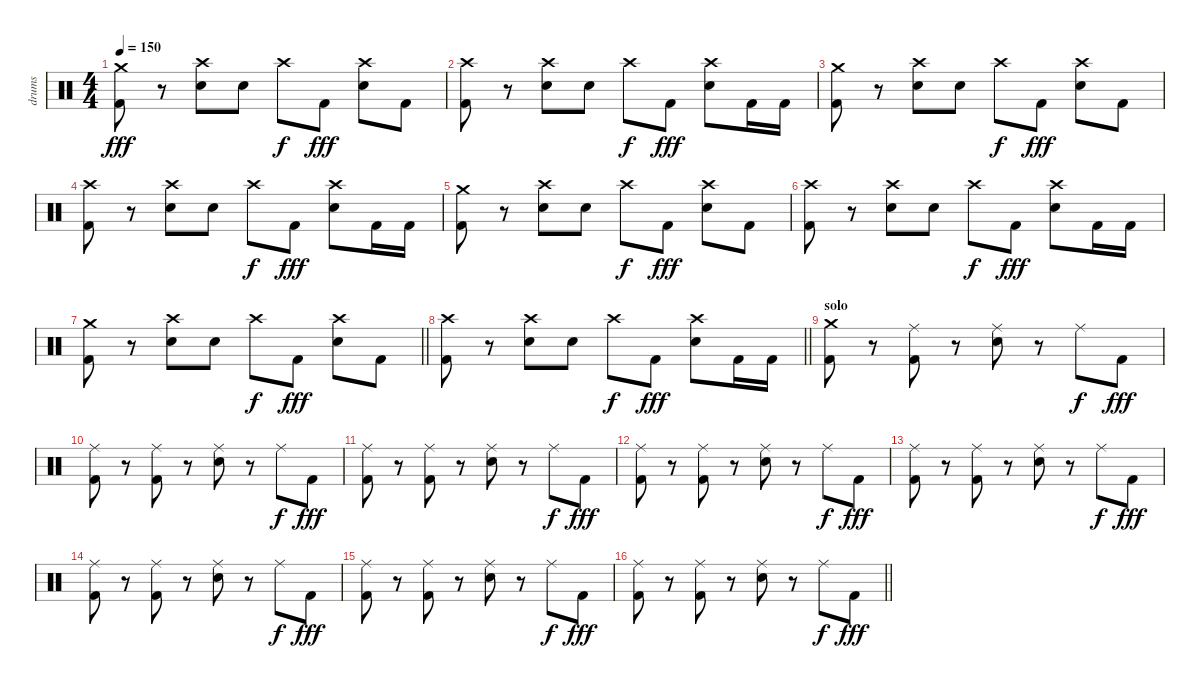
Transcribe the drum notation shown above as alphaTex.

\track ("drums" "drums") {instrument percussion}
\staff {score}
\articulation defaults
\ts (4 4)
\tempo 150
\clef neutral
\ks c
("Crash medium (hit)" "Kick (hit) 2").8{dy fff} r.8 ("Crash high (hit)" "Snare (hit) 2").8 "Snare (hit) 2".8 "Crash high (hit)".8{dy f} "Kick (hit) 2".8{dy fff} ("Crash high (hit)" "Snare (hit) 2").8 "Kick (hit) 2".8 |
("Crash high (hit)" "Kick (hit) 2").8 r.8 ("Crash high (hit)" "Snare (hit) 2").8 "Snare (hit) 2".8 "Crash high (hit)".8{dy f} "Kick (hit) 2".8{dy fff} ("Crash high (hit)" "Snare (hit) 2").8 "Kick (hit) 2".16 "Kick (hit) 2".16 |
("Crash medium (hit)" "Kick (hit) 2").8 r.8 ("Crash high (hit)" "Snare (hit) 2").8 "Snare (hit) 2".8 "Crash high (hit)".8{dy f} "Kick (hit) 2".8{dy fff} ("Crash high (hit)" "Snare (hit) 2").8 "Kick (hit) 2".8 |
("Crash high (hit)" "Kick (hit) 2").8 r.8 ("Crash high (hit)" "Snare (hit) 2").8 "Snare (hit) 2".8 "Crash high (hit)".8{dy f} "Kick (hit) 2".8{dy fff} ("Crash high (hit)" "Snare (hit) 2").8 "Kick (hit) 2".16 "Kick (hit) 2".16 |
("Crash medium (hit)" "Kick (hit) 2").8 r.8 ("Crash high (hit)" "Snare (hit) 2").8 "Snare (hit) 2".8 "Crash high (hit)".8{dy f} "Kick (hit) 2".8{dy fff} ("Crash high (hit)" "Snare (hit) 2").8 "Kick (hit) 2".8 |
("Crash high (hit)" "Kick (hit) 2").8 r.8 ("Crash high (hit)" "Snare (hit) 2").8 "Snare (hit) 2".8 "Crash high (hit)".8{dy f} "Kick (hit) 2".8{dy fff} ("Crash high (hit)" "Snare (hit) 2").8 "Kick (hit) 2".16 "Kick (hit) 2".16 |
\barLineRight lightlight
("Crash medium (hit)" "Kick (hit) 2").8 r.8 ("Crash high (hit)" "Snare (hit) 2").8 "Snare (hit) 2".8 "Crash high (hit)".8{dy f} "Kick (hit) 2".8{dy fff} ("Crash high (hit)" "Snare (hit) 2").8 "Kick (hit) 2".8 |
\section ("" "")
\barLineRight lightlight
("Crash high (hit)" "Kick (hit) 2").8 r.8 ("Crash high (hit)" "Snare (hit) 2").8 "Snare (hit) 2".8 "Crash high (hit)".8{dy f} "Kick (hit) 2".8{dy fff} ("Crash high (hit)" "Snare (hit) 2").8 "Kick (hit) 2".16 "Kick (hit) 2".16 |
\section ("" "solo")
("Crash medium (hit)" "Kick (hit) 2").8 r.8 ("Ride (middle)" "Kick (hit) 2").8 r.8 ("Ride (middle)" "Snare (hit) 2").8 r.8 "Ride (middle)".8{dy f} "Kick (hit) 2".8{dy fff} |
("Ride (middle)" "Kick (hit) 2").8 r.8 ("Ride (middle)" "Kick (hit) 2").8 r.8 ("Ride (middle)" "Snare (hit) 2").8 r.8 "Ride (middle)".8{dy f} "Kick (hit) 2".8{dy fff} |
("Ride (middle)" "Kick (hit) 2").8 r.8 ("Ride (middle)" "Kick (hit) 2").8 r.8 ("Ride (middle)" "Snare (hit) 2").8 r.8 "Ride (middle)".8{dy f} "Kick (hit) 2".8{dy fff} |
("Ride (middle)" "Kick (hit) 2").8 r.8 ("Ride (middle)" "Kick (hit) 2").8 r.8 ("Ride (middle)" "Snare (hit) 2").8 r.8 "Ride (middle)".8{dy f} "Kick (hit) 2".8{dy fff} |
("Ride (middle)" "Kick (hit) 2").8 r.8 ("Ride (middle)" "Kick (hit) 2").8 r.8 ("Ride (middle)" "Snare (hit) 2").8 r.8 "Ride (middle)".8{dy f} "Kick (hit) 2".8{dy fff} |
("Ride (middle)" "Kick (hit) 2").8 r.8 ("Ride (middle)" "Kick (hit) 2").8 r.8 ("Ride (middle)" "Snare (hit) 2").8 r.8 "Ride (middle)".8{dy f} "Kick (hit) 2".8{dy fff} |
("Ride (middle)" "Kick (hit) 2").8 r.8 ("Ride (middle)" "Kick (hit) 2").8 r.8 ("Ride (middle)" "Snare (hit) 2").8 r.8 "Ride (middle)".8{dy f} "Kick (hit) 2".8{dy fff} |
\barLineRight lightlight
("Ride (middle)" "Kick (hit) 2").8 r.8 ("Ride (middle)" "Kick (hit) 2").8 r.8 ("Ride (middle)" "Snare (hit) 2").8 r.8 "Ride (middle)".8{dy f} "Kick (hit) 2".8{dy fff}
